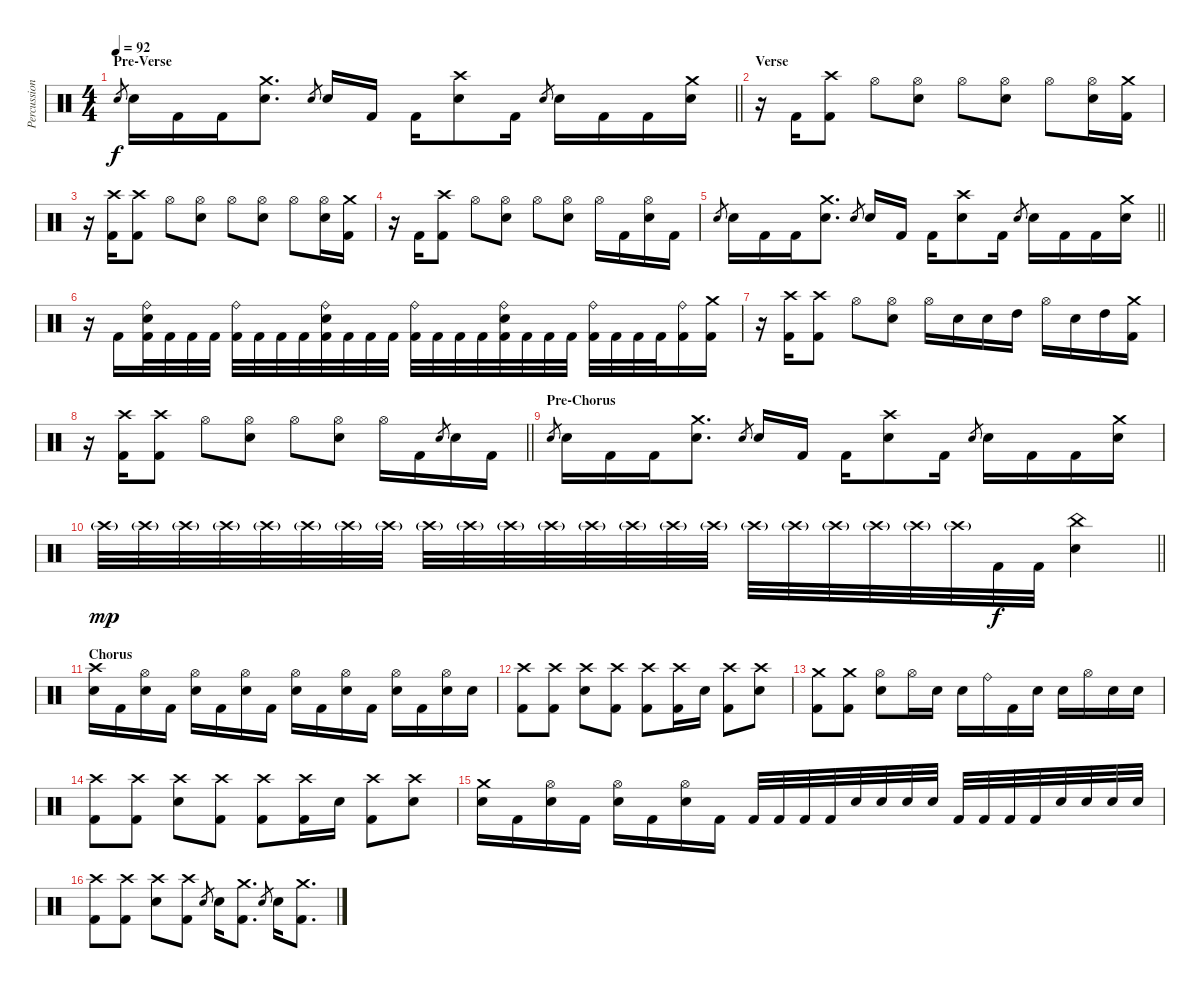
\track ("Percussion" "Percussion") {solo instrument percussion}
\staff {score}
\articulation defaults
\ts (4 4)
\section ("" "Pre-Verse")
\tempo 92
\clef neutral
\barLineRight lightlight
\ks c "Electric Snare (hit)".8{gr dy f} "Electric Snare (hit)".16 "Kick (hit) 2".16 "Kick (hit) 2".16
("Crash medium (hit)" "Electric Snare (hit)").8{d} "Electric Snare (hit)".8{gr} "Electric Snare (hit)".16 "Kick (hit) 2".16 "Kick (hit) 2".16 ("Crash high (hit)" "Electric Snare (hit)").8 "Kick (hit) 2".16 "Electric Snare (hit)".8{gr} "Electric Snare (hit)".16 "Kick (hit) 2".16 "Kick (hit) 2".16 ("Crash medium (hit)" "Electric Snare (hit)").16 |
\section ("" "Verse")
r.16 "Kick (hit) 2".16 ("Crash high (hit)" "Kick (hit) 2").8 "Hi-Hat (open)".8 ("Hi-Hat (open)" "Electric Snare (hit)").8 "Hi-Hat (open)".8 ("Hi-Hat (open)" "Electric Snare (hit)").8 "Hi-Hat (open)".8 ("Hi-Hat (open)" "Electric Snare (hit)").16 ("Crash medium (hit)" "Kick (hit) 2").16 |
r.16 ("Crash high (hit)" "Kick (hit) 2").16 ("Crash high (hit)" "Kick (hit) 2").8 "Hi-Hat (open)".8 ("Hi-Hat (open)" "Electric Snare (hit)").8 "Hi-Hat (open)".8 ("Hi-Hat (open)" "Electric Snare (hit)").8 "Hi-Hat (open)".8 ("Hi-Hat (open)" "Electric Snare (hit)").16 ("Crash medium (hit)" "Kick (hit) 2").16 |
r.16 "Kick (hit) 2".16 ("Crash high (hit)" "Kick (hit) 2").8 "Hi-Hat (open)".8 ("Hi-Hat (open)" "Electric Snare (hit)").8 "Hi-Hat (open)".8 ("Hi-Hat (open)" "Electric Snare (hit)").8 "Hi-Hat (open)".16 "Kick (hit) 2".16 ("Hi-Hat (open)" "Electric Snare (hit)").16 "Kick (hit) 2".16 |
\barLineRight lightlight "Electric Snare (hit)".8{gr} "Electric Snare (hit)".16 "Kick (hit) 2".16 "Kick (hit) 2".16
("Crash medium (hit)" "Electric Snare (hit)").8{d} "Electric Snare (hit)".8{gr} "Electric Snare (hit)".16 "Kick (hit) 2".16 "Kick (hit) 2".16 ("Crash high (hit)" "Electric Snare (hit)").8 "Kick (hit) 2".16 "Electric Snare (hit)".8{gr} "Electric Snare (hit)".16 "Kick (hit) 2".16 "Kick (hit) 2".16 ("Crash medium (hit)" "Electric Snare (hit)").16 |
r.16 "Kick (hit) 2".16 ("Ride (bell)" "Electric Snare (hit)" "Kick (hit) 2").32 "Kick (hit) 2".32 "Kick (hit) 2".32 "Kick (hit) 2".32 ("Ride (bell)" "Kick (hit) 2").32 "Kick (hit) 2".32 "Kick (hit) 2".32 "Kick (hit) 2".32 ("Ride (bell)" "Electric Snare (hit)" "Kick (hit) 2").32 "Kick (hit) 2".32 "Kick (hit) 2".32 "Kick (hit) 2".32 ("Ride (bell)" "Kick (hit) 2").32 "Kick (hit) 2".32 "Kick (hit) 2".32 "Kick (hit) 2".32 ("Ride (bell)" "Electric Snare (hit)" "Kick (hit) 2").32 "Kick (hit) 2".32 "Kick (hit) 2".32 "Kick (hit) 2".32 ("Ride (bell)" "Kick (hit) 2").32 "Kick (hit) 2".32 "Kick (hit) 2".32 "Kick (hit) 2".32 ("Ride (bell)" "Kick (hit) 2").16 ("Crash medium (hit)" "Kick (hit) 2").16 |
r.16 ("Crash high (hit)" "Kick (hit) 2").16 ("Crash high (hit)" "Kick (hit) 2").8 "Hi-Hat (open)".8 ("Hi-Hat (open)" "Electric Snare (hit)").8 "Hi-Hat (open)".16 "Electric Snare (hit)".16 "Electric Snare (hit)".16 "High Tom (hit)".16 "Hi-Hat (open)".16 "Electric Snare (hit)".16 "High Tom (hit)".16 ("Crash medium (hit)" "Kick (hit) 2").16 |
\barLineRight lightlight
r.16 ("Crash high (hit)" "Kick (hit) 2").16 ("Crash high (hit)" "Kick (hit) 2").8 "Hi-Hat (open)".8 ("Hi-Hat (open)" "Electric Snare (hit)").8 "Hi-Hat (open)".8 ("Hi-Hat (open)" "Electric Snare (hit)").8 "Hi-Hat (open)".16 "Kick (hit) 2".16 "Electric Snare (hit)".8{gr} "Electric Snare (hit)".16 "Kick (hit) 2".16 |
\section ("" "Pre-Chorus")
"Electric Snare (hit)".8{gr} "Electric Snare (hit)".16 "Kick (hit) 2".16 "Kick (hit) 2".16 ("Crash medium (hit)" "Electric Snare (hit)").8{d} "Electric Snare (hit)".8{gr} "Electric Snare (hit)".16 "Kick (hit) 2".16 "Kick (hit) 2".16 ("Crash high (hit)" "Electric Snare (hit)").8 "Kick (hit) 2".16 "Electric Snare (hit)".8{gr} "Electric Snare (hit)".16 "Kick (hit) 2".16 "Kick (hit) 2".16 ("Crash medium (hit)" "Electric Snare (hit)").16 |
\barLineRight lightlight "Crash high (hit)"{g}.32{dy mp} "Crash high (hit)"{g}.32 "Crash high (hit)"{g}.32 "Crash high (hit)"{g}.32 "Crash high (hit)"{g}.32 "Crash high (hit)"{g}.32 "Crash high (hit)"{g}.32 "Crash high (hit)"{g}.32 "Crash high (hit)"{g}.32 "Crash high (hit)"{g}.32 "Crash high (hit)"{g}.32 "Crash high (hit)"{g}.32 "Crash high (hit)"{g}.32 "Crash high (hit)"{g}.32 "Crash high (hit)"{g}.32 "Crash high (hit)"{g}.32 "Crash high (hit)"{g}.32 "Crash high (hit)"{g}.32 "Crash high (hit)"{g}.32 "Crash high (hit)"{g}.32 "Crash high (hit)"{g}.32 "Crash high (hit)"{g}.32 "Kick (hit) 2".32{dy f} "Kick (hit) 2".32
("China (hit)" "Electric Snare (hit)").4 |
\section ("" "Chorus")
("Crash high (hit)" "Electric Snare (hit)").16 "Kick (hit) 2".16 ("Hi-Hat (open)" "Electric Snare (hit)").16 "Kick (hit) 2".16 ("Hi-Hat (open)" "Electric Snare (hit)").16 "Kick (hit) 2".16 ("Hi-Hat (open)" "Electric Snare (hit)").16 "Kick (hit) 2".16 ("Hi-Hat (open)" "Electric Snare (hit)").16 "Kick (hit) 2".16 ("Hi-Hat (open)" "Electric Snare (hit)").16 "Kick (hit) 2".16 ("Hi-Hat (open)" "Electric Snare (hit)").16 "Kick (hit) 2".16 ("Hi-Hat (open)" "Electric Snare (hit)").16 "Electric Snare (hit)".16 |
("Crash high (hit)" "Kick (hit) 2").8 ("Crash high (hit)" "Kick (hit) 2").8 ("Crash high (hit)" "Electric Snare (hit)").8 ("Crash high (hit)" "Kick (hit) 2").8 ("Crash high (hit)" "Kick (hit) 2").8 ("Crash high (hit)" "Kick (hit) 2").16 "Electric Snare (hit)".16 ("Crash high (hit)" "Kick (hit) 2").8 ("Crash high (hit)" "Electric Snare (hit)").8 |
("Crash medium (hit)" "Kick (hit) 2").8 ("Crash medium (hit)" "Kick (hit) 2").8 ("Hi-Hat (open)" "Electric Snare (hit)").8 "Hi-Hat (open)".16 "Electric Snare (hit)".16 "Electric Snare (hit)".16 "Ride (bell)".16 "Kick (hit) 2".16 "Electric Snare (hit)".16 "Electric Snare (hit)".16 "Hi-Hat (open)".16 "Electric Snare (hit)".16 "Electric Snare (hit)".16 |
("Crash high (hit)" "Kick (hit) 2").8 ("Crash high (hit)" "Kick (hit) 2").8 ("Crash high (hit)" "Electric Snare (hit)").8 ("Crash high (hit)" "Kick (hit) 2").8 ("Crash high (hit)" "Kick (hit) 2").8 ("Crash high (hit)" "Kick (hit) 2").16 "Electric Snare (hit)".16 ("Crash high (hit)" "Kick (hit) 2").8 ("Crash high (hit)" "Electric Snare (hit)").8 |
("Crash medium (hit)" "Electric Snare (hit)").16 "Kick (hit) 2".16 ("Hi-Hat (open)" "Electric Snare (hit)").16 "Kick (hit) 2".16 ("Hi-Hat (open)" "Electric Snare (hit)").16 "Kick (hit) 2".16 ("Hi-Hat (open)" "Electric Snare (hit)").16 "Kick (hit) 2".16 "Kick (hit) 2".32 "Kick (hit) 2".32 "Kick (hit) 2".32 "Kick (hit) 2".32 "Electric Snare (hit)".32 "Electric Snare (hit)".32 "Electric Snare (hit)".32 "Electric Snare (hit)".32 "Kick (hit) 2".32 "Kick (hit) 2".32 "Kick (hit) 2".32 "Kick (hit) 2".32 "Electric Snare (hit)".32 "Electric Snare (hit)".32 "Electric Snare (hit)".32 "Electric Snare (hit)".32 |
("Crash high (hit)" "Kick (hit) 2").8 ("Crash high (hit)" "Kick (hit) 2").8 ("Crash high (hit)" "Electric Snare (hit)").8 ("Crash high (hit)" "Kick (hit) 2").8 "Electric Snare (hit)".8{gr} "Electric Snare (hit)".16 ("Crash medium (hit)" "Kick (hit) 2").8{d} "Electric Snare (hit)".8{gr} "Electric Snare (hit)".16 ("Crash medium (hit)" "Kick (hit) 2").8{d}
